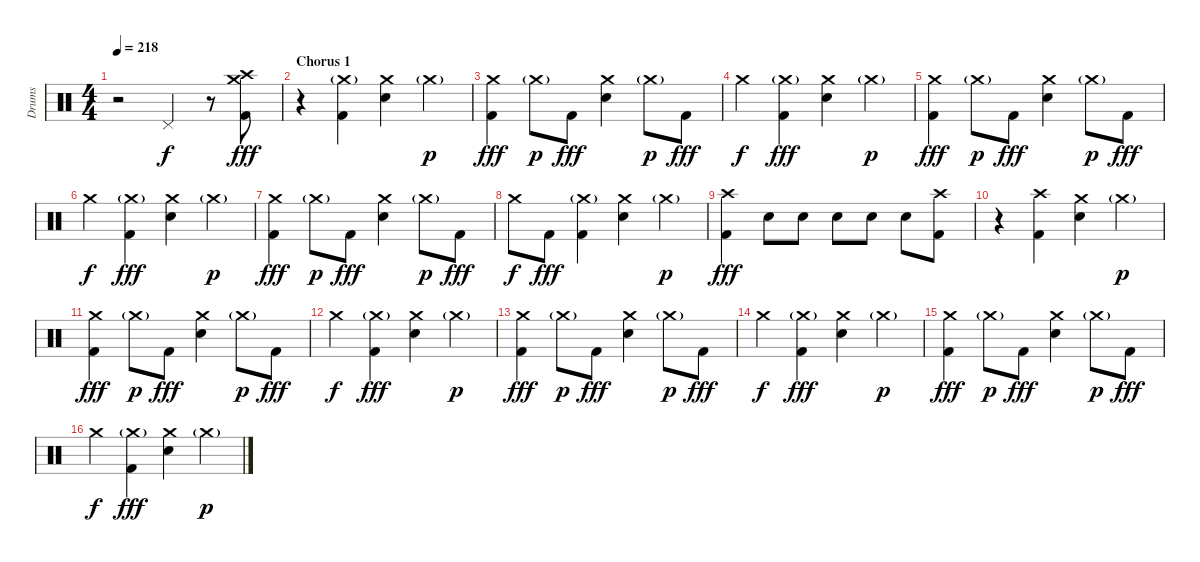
\track ("Drums" "Drums") {instrument percussion}
\staff {score}
\articulation defaults
\ts (4 4)
\tempo 218
\clef neutral
\ks c
r.2{dy fff} "Pedal Hi-Hat (hit)".4{dy f} r.8 ("Crash medium (hit)" "Crash high (hit)" "Kick (hit) 2").8{dy fff} |
\section ("" "Chorus 1")
r.4 ("Crash medium (hit)"{g} "Kick (hit) 2").4 ("Crash medium (hit)" "Electric Snare (hit)").4 "Crash medium (hit)"{g}.4{dy p} |
("Crash medium (hit)" "Kick (hit) 2").4{dy fff} "Crash medium (hit)"{g}.8{dy p} "Kick (hit) 2".8{dy fff} ("Crash medium (hit)" "Electric Snare (hit)").4 "Crash medium (hit)"{g}.8{dy p} "Kick (hit) 2".8{dy fff} |
"Crash medium (hit)".4{dy f} ("Crash medium (hit)"{g} "Kick (hit) 2").4{dy fff} ("Crash medium (hit)" "Electric Snare (hit)").4 "Crash medium (hit)"{g}.4{dy p} |
("Crash medium (hit)" "Kick (hit) 2").4{dy fff} "Crash medium (hit)"{g}.8{dy p} "Kick (hit) 2".8{dy fff} ("Crash medium (hit)" "Electric Snare (hit)").4 "Crash medium (hit)"{g}.8{dy p} "Kick (hit) 2".8{dy fff} |
"Crash medium (hit)".4{dy f} ("Crash medium (hit)"{g} "Kick (hit) 2").4{dy fff} ("Crash medium (hit)" "Electric Snare (hit)").4 "Crash medium (hit)"{g}.4{dy p} |
("Crash medium (hit)" "Kick (hit) 2").4{dy fff} "Crash medium (hit)"{g}.8{dy p} "Kick (hit) 2".8{dy fff} ("Crash medium (hit)" "Electric Snare (hit)").4 "Crash medium (hit)"{g}.8{dy p} "Kick (hit) 2".8{dy fff} |
"Crash medium (hit)".8{dy f} "Kick (hit) 2".8{dy fff} ("Crash medium (hit)"{g} "Kick (hit) 2").4 ("Crash medium (hit)" "Electric Snare (hit)").4 "Crash medium (hit)"{g}.4{dy p} |
("Crash high (hit)" "Kick (hit) 2").4{dy fff} "Electric Snare (hit)".8 "Electric Snare (hit)".8 "Electric Snare (hit)".8 "Electric Snare (hit)".8 "Electric Snare (hit)".8 ("Crash high (hit)" "Kick (hit) 2").8 |
r.4 ("Crash high (hit)" "Kick (hit) 2").4 ("Crash medium (hit)" "Electric Snare (hit)").4 "Crash medium (hit)"{g}.4{dy p} |
("Crash medium (hit)" "Kick (hit) 2").4{dy fff} "Crash medium (hit)"{g}.8{dy p} "Kick (hit) 2".8{dy fff} ("Crash medium (hit)" "Electric Snare (hit)").4 "Crash medium (hit)"{g}.8{dy p} "Kick (hit) 2".8{dy fff} |
"Crash medium (hit)".4{dy f} ("Crash medium (hit)"{g} "Kick (hit) 2").4{dy fff} ("Crash medium (hit)" "Electric Snare (hit)").4 "Crash medium (hit)"{g}.4{dy p} |
("Crash medium (hit)" "Kick (hit) 2").4{dy fff} "Crash medium (hit)"{g}.8{dy p} "Kick (hit) 2".8{dy fff} ("Crash medium (hit)" "Electric Snare (hit)").4 "Crash medium (hit)"{g}.8{dy p} "Kick (hit) 2".8{dy fff} |
"Crash medium (hit)".4{dy f} ("Crash medium (hit)"{g} "Kick (hit) 2").4{dy fff} ("Crash medium (hit)" "Electric Snare (hit)").4 "Crash medium (hit)"{g}.4{dy p} |
("Crash medium (hit)" "Kick (hit) 2").4{dy fff} "Crash medium (hit)"{g}.8{dy p} "Kick (hit) 2".8{dy fff} ("Crash medium (hit)" "Electric Snare (hit)").4 "Crash medium (hit)"{g}.8{dy p} "Kick (hit) 2".8{dy fff} |
"Crash medium (hit)".4{dy f} ("Crash medium (hit)"{g} "Kick (hit) 2").4{dy fff} ("Crash medium (hit)" "Electric Snare (hit)").4 "Crash medium (hit)"{g}.4{dy p}
